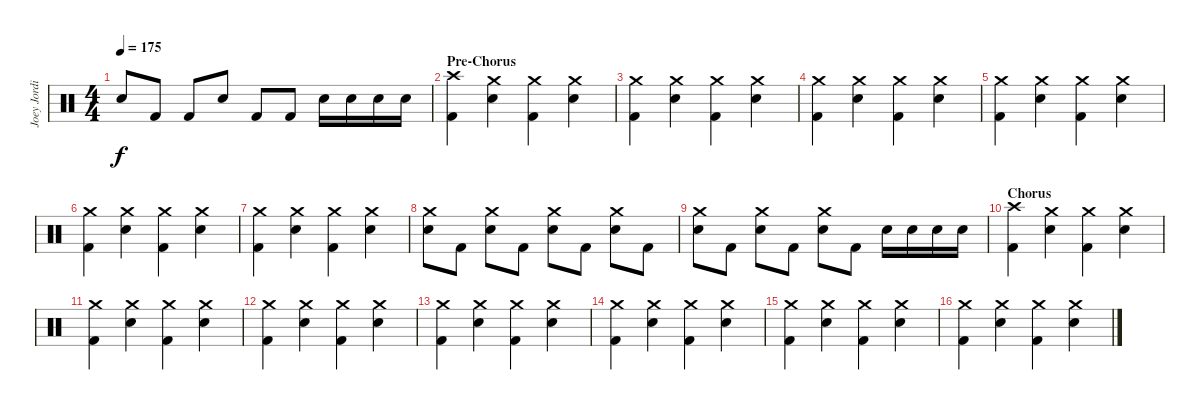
\track ("Joey Jordison (Drums)" "Joey Jordi") {instrument percussion}
\staff {score}
\articulation defaults
\ts (4 4)
\tempo 175
\clef neutral
\ks c "Electric Snare (hit)".8{dy f} "Kick (hit) 2".8 "Kick (hit) 2".8 "Electric Snare (hit)".8 "Kick (hit) 2".8 "Kick (hit) 2".8 "Electric Snare (hit)".16 "Electric Snare (hit)".16 "Electric Snare (hit)".16 "Electric Snare (hit)".16
|
\section ("" "Pre-Chorus")
("Crash high (hit)" "Kick (hit) 2").4 ("Crash medium (hit)" "Electric Snare (hit)").4 ("Crash medium (hit)" "Kick (hit) 2").4 ("Crash medium (hit)" "Electric Snare (hit)").4 |
("Crash medium (hit)" "Kick (hit) 2").4 ("Crash medium (hit)" "Electric Snare (hit)").4 ("Crash medium (hit)" "Kick (hit) 2").4 ("Crash medium (hit)" "Electric Snare (hit)").4 |
("Crash medium (hit)" "Kick (hit) 2").4 ("Crash medium (hit)" "Electric Snare (hit)").4 ("Crash medium (hit)" "Kick (hit) 2").4 ("Crash medium (hit)" "Electric Snare (hit)").4 |
("Crash medium (hit)" "Kick (hit) 2").4 ("Crash medium (hit)" "Electric Snare (hit)").4 ("Crash medium (hit)" "Kick (hit) 2").4 ("Crash medium (hit)" "Electric Snare (hit)").4 |
("Crash medium (hit)" "Kick (hit) 2").4 ("Crash medium (hit)" "Electric Snare (hit)").4 ("Crash medium (hit)" "Kick (hit) 2").4 ("Crash medium (hit)" "Electric Snare (hit)").4 |
("Crash medium (hit)" "Kick (hit) 2").4 ("Crash medium (hit)" "Electric Snare (hit)").4 ("Crash medium (hit)" "Kick (hit) 2").4 ("Crash medium (hit)" "Electric Snare (hit)").4 |
("Crash medium (hit)" "Electric Snare (hit)").8 "Kick (hit) 2".8 ("Crash medium (hit)" "Electric Snare (hit)").8 "Kick (hit) 2".8 ("Crash medium (hit)" "Electric Snare (hit)").8 "Kick (hit) 2".8 ("Crash medium (hit)" "Electric Snare (hit)").8 "Kick (hit) 2".8 |
("Crash medium (hit)" "Electric Snare (hit)").8 "Kick (hit) 2".8 ("Crash medium (hit)" "Electric Snare (hit)").8 "Kick (hit) 2".8 ("Crash medium (hit)" "Electric Snare (hit)").8 "Kick (hit) 2".8 "Electric Snare (hit)".16 "Electric Snare (hit)".16 "Electric Snare (hit)".16 "Electric Snare (hit)".16 |
\section ("" "Chorus")
("Crash high (hit)" "Kick (hit) 2").4 ("Crash medium (hit)" "Electric Snare (hit)").4 ("Crash medium (hit)" "Kick (hit) 2").4 ("Crash medium (hit)" "Electric Snare (hit)").4 |
("Crash medium (hit)" "Kick (hit) 2").4 ("Crash medium (hit)" "Electric Snare (hit)").4 ("Crash medium (hit)" "Kick (hit) 2").4 ("Crash medium (hit)" "Electric Snare (hit)").4 |
("Crash medium (hit)" "Kick (hit) 2").4 ("Crash medium (hit)" "Electric Snare (hit)").4 ("Crash medium (hit)" "Kick (hit) 2").4 ("Crash medium (hit)" "Electric Snare (hit)").4 |
("Crash medium (hit)" "Kick (hit) 2").4 ("Crash medium (hit)" "Electric Snare (hit)").4 ("Crash medium (hit)" "Kick (hit) 2").4 ("Crash medium (hit)" "Electric Snare (hit)").4 |
("Crash medium (hit)" "Kick (hit) 2").4 ("Crash medium (hit)" "Electric Snare (hit)").4 ("Crash medium (hit)" "Kick (hit) 2").4 ("Crash medium (hit)" "Electric Snare (hit)").4 |
("Crash medium (hit)" "Kick (hit) 2").4 ("Crash medium (hit)" "Electric Snare (hit)").4 ("Crash medium (hit)" "Kick (hit) 2").4 ("Crash medium (hit)" "Electric Snare (hit)").4 |
("Crash medium (hit)" "Kick (hit) 2").4 ("Crash medium (hit)" "Electric Snare (hit)").4 ("Crash medium (hit)" "Kick (hit) 2").4 ("Crash medium (hit)" "Electric Snare (hit)").4
